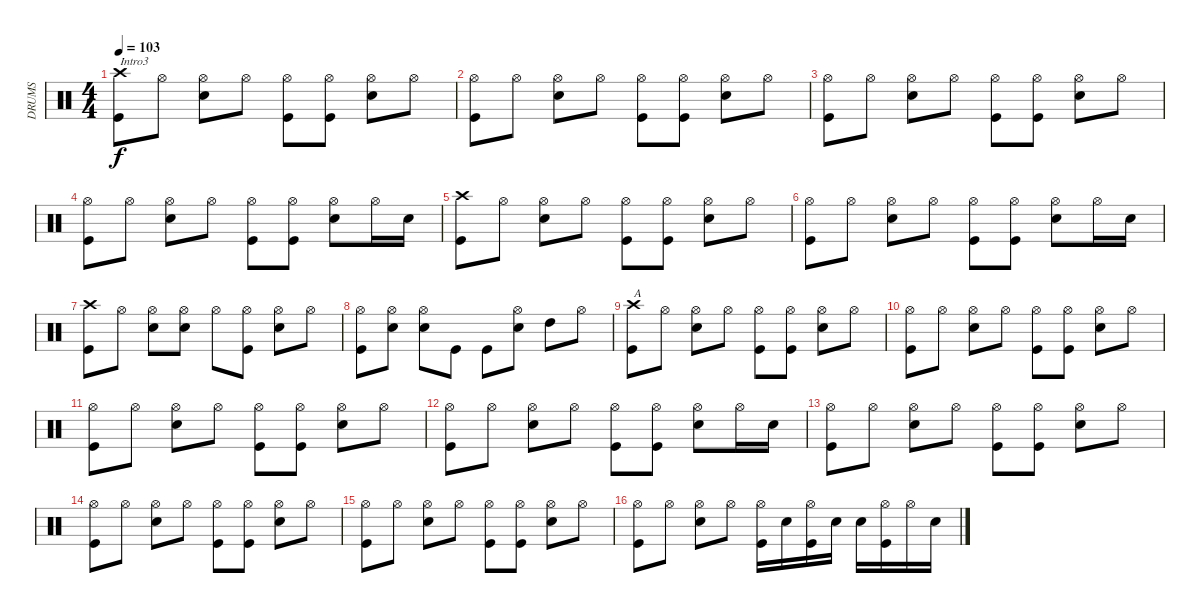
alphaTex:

\track ("DRUMS" "DRUMS") {instrument percussion}
\staff {score}
\articulation defaults
\ts (4 4)
\tempo 103
\clef neutral
\ks c
("Crash high (hit)" "Kick (hit)").8{txt "Intro3" dy f} "Hi-Hat (open)".8 ("Hi-Hat (open)" "Electric Snare (hit)").8 "Hi-Hat (open)".8 ("Hi-Hat (open)" "Kick (hit)").8 ("Hi-Hat (open)" "Kick (hit)").8 ("Hi-Hat (open)" "Electric Snare (hit)").8 "Hi-Hat (open)".8 |
("Hi-Hat (open)" "Kick (hit)").8 "Hi-Hat (open)".8 ("Hi-Hat (open)" "Electric Snare (hit)").8 "Hi-Hat (open)".8 ("Hi-Hat (open)" "Kick (hit)").8 ("Hi-Hat (open)" "Kick (hit)").8 ("Hi-Hat (open)" "Electric Snare (hit)").8 "Hi-Hat (open)".8 |
("Hi-Hat (open)" "Kick (hit)").8 "Hi-Hat (open)".8 ("Hi-Hat (open)" "Electric Snare (hit)").8 "Hi-Hat (open)".8 ("Hi-Hat (open)" "Kick (hit)").8 ("Hi-Hat (open)" "Kick (hit)").8 ("Hi-Hat (open)" "Electric Snare (hit)").8 "Hi-Hat (open)".8 |
("Hi-Hat (open)" "Kick (hit)").8 "Hi-Hat (open)".8 ("Hi-Hat (open)" "Electric Snare (hit)").8 "Hi-Hat (open)".8 ("Hi-Hat (open)" "Kick (hit)").8 ("Hi-Hat (open)" "Kick (hit)").8 ("Hi-Hat (open)" "Electric Snare (hit)").8 "Hi-Hat (open)".16 "Electric Snare (hit)".16 |
("Crash high (hit)" "Kick (hit)").8 "Hi-Hat (open)".8 ("Hi-Hat (open)" "Electric Snare (hit)").8 "Hi-Hat (open)".8 ("Hi-Hat (open)" "Kick (hit)").8 ("Hi-Hat (open)" "Kick (hit)").8 ("Hi-Hat (open)" "Electric Snare (hit)").8 "Hi-Hat (open)".8 |
("Hi-Hat (open)" "Kick (hit)").8 "Hi-Hat (open)".8 ("Hi-Hat (open)" "Electric Snare (hit)").8 "Hi-Hat (open)".8 ("Hi-Hat (open)" "Kick (hit)").8 ("Hi-Hat (open)" "Kick (hit)").8 ("Hi-Hat (open)" "Electric Snare (hit)").8 "Hi-Hat (open)".16 "Electric Snare (hit)".16 |
("Crash high (hit)" "Kick (hit)").8 "Hi-Hat (open)".8 ("Hi-Hat (open)" "Electric Snare (hit)").8 ("Hi-Hat (open)" "Electric Snare (hit)").8 "Hi-Hat (open)".8 ("Hi-Hat (open)" "Kick (hit)").8 ("Hi-Hat (open)" "Electric Snare (hit)").8 "Hi-Hat (open)".8 |
("Hi-Hat (open)" "Kick (hit)").8 ("Hi-Hat (open)" "Electric Snare (hit)").8 ("Hi-Hat (open)" "Electric Snare (hit)").8 "Kick (hit)".8 "Kick (hit)".8 ("Hi-Hat (open)" "Electric Snare (hit)").8 "High Tom (hit)".8 "Hi-Hat (open)".8 |
("Crash high (hit)" "Kick (hit)").8{txt "A"} "Hi-Hat (open)".8 ("Hi-Hat (open)" "Electric Snare (hit)").8 "Hi-Hat (open)".8 ("Hi-Hat (open)" "Kick (hit)").8 ("Hi-Hat (open)" "Kick (hit)").8 ("Hi-Hat (open)" "Electric Snare (hit)").8 "Hi-Hat (open)".8 |
("Hi-Hat (open)" "Kick (hit)").8 "Hi-Hat (open)".8 ("Hi-Hat (open)" "Electric Snare (hit)").8 "Hi-Hat (open)".8 ("Hi-Hat (open)" "Kick (hit)").8 ("Hi-Hat (open)" "Kick (hit)").8 ("Hi-Hat (open)" "Electric Snare (hit)").8 "Hi-Hat (open)".8 |
("Hi-Hat (open)" "Kick (hit)").8 "Hi-Hat (open)".8 ("Hi-Hat (open)" "Electric Snare (hit)").8 "Hi-Hat (open)".8 ("Hi-Hat (open)" "Kick (hit)").8 ("Hi-Hat (open)" "Kick (hit)").8 ("Hi-Hat (open)" "Electric Snare (hit)").8 "Hi-Hat (open)".8 |
("Hi-Hat (open)" "Kick (hit)").8 "Hi-Hat (open)".8 ("Hi-Hat (open)" "Electric Snare (hit)").8 "Hi-Hat (open)".8 ("Hi-Hat (open)" "Kick (hit)").8 ("Hi-Hat (open)" "Kick (hit)").8 ("Hi-Hat (open)" "Electric Snare (hit)").8 "Hi-Hat (open)".16 "Electric Snare (hit)".16 |
("Hi-Hat (open)" "Kick (hit)").8 "Hi-Hat (open)".8 ("Hi-Hat (open)" "Electric Snare (hit)").8 "Hi-Hat (open)".8 ("Hi-Hat (open)" "Kick (hit)").8 ("Hi-Hat (open)" "Kick (hit)").8 ("Hi-Hat (open)" "Electric Snare (hit)").8 "Hi-Hat (open)".8 |
("Hi-Hat (open)" "Kick (hit)").8 "Hi-Hat (open)".8 ("Hi-Hat (open)" "Electric Snare (hit)").8 "Hi-Hat (open)".8 ("Hi-Hat (open)" "Kick (hit)").8 ("Hi-Hat (open)" "Kick (hit)").8 ("Hi-Hat (open)" "Electric Snare (hit)").8 "Hi-Hat (open)".8 |
("Hi-Hat (open)" "Kick (hit)").8 "Hi-Hat (open)".8 ("Hi-Hat (open)" "Electric Snare (hit)").8 "Hi-Hat (open)".8 ("Hi-Hat (open)" "Kick (hit)").8 ("Hi-Hat (open)" "Kick (hit)").8 ("Hi-Hat (open)" "Electric Snare (hit)").8 "Hi-Hat (open)".8 |
("Hi-Hat (open)" "Kick (hit)").8 "Hi-Hat (open)".8 ("Hi-Hat (open)" "Electric Snare (hit)").8 "Hi-Hat (open)".8 ("Hi-Hat (open)" "Kick (hit)").16 "Electric Snare (hit)".16 ("Hi-Hat (open)" "Kick (hit)").16 "Electric Snare (hit)".16 "Electric Snare (hit)".16 ("Hi-Hat (open)" "Kick (hit)").16 "Hi-Hat (open)".16 "Electric Snare (hit)".16
